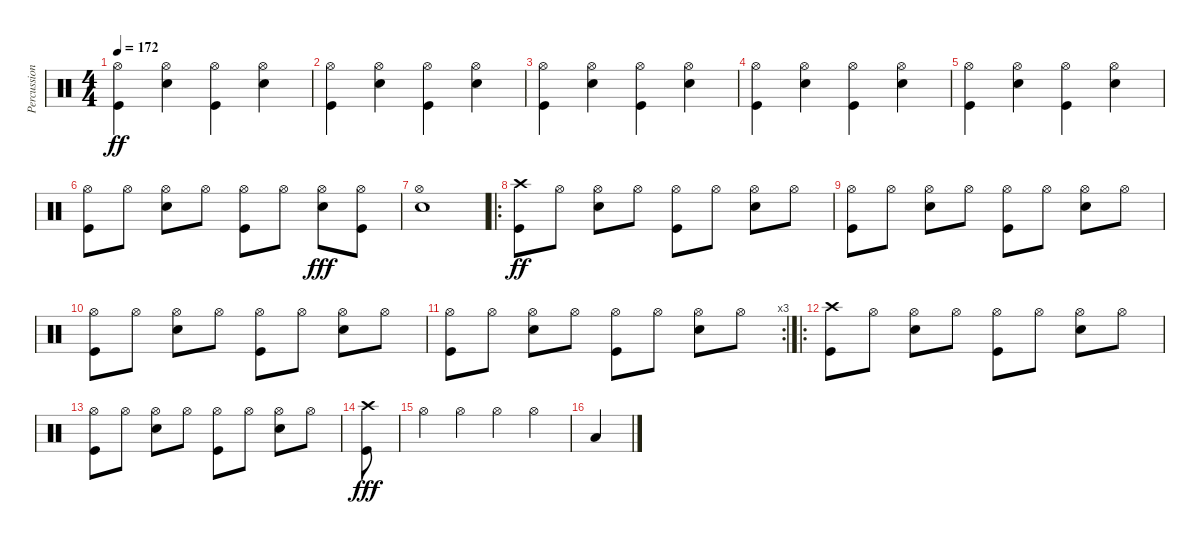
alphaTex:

\track ("Percussioni" "Percussion") {instrument percussion}
\staff {score}
\articulation defaults
\ts (4 4)
\tempo 172
\clef neutral
\ks c
("Hi-Hat (open)" "Kick (hit)").4{dy ff} ("Hi-Hat (open)" "Electric Snare (hit)").4 ("Hi-Hat (open)" "Kick (hit)").4 ("Hi-Hat (open)" "Electric Snare (hit)").4 |
("Hi-Hat (open)" "Kick (hit)").4 ("Hi-Hat (open)" "Electric Snare (hit)").4 ("Hi-Hat (open)" "Kick (hit)").4 ("Hi-Hat (open)" "Electric Snare (hit)").4 |
("Hi-Hat (open)" "Kick (hit)").4 ("Hi-Hat (open)" "Electric Snare (hit)").4 ("Hi-Hat (open)" "Kick (hit)").4 ("Hi-Hat (open)" "Electric Snare (hit)").4 |
("Hi-Hat (open)" "Kick (hit)").4 ("Hi-Hat (open)" "Electric Snare (hit)").4 ("Hi-Hat (open)" "Kick (hit)").4 ("Hi-Hat (open)" "Electric Snare (hit)").4 |
("Hi-Hat (open)" "Kick (hit)").4 ("Hi-Hat (open)" "Electric Snare (hit)").4 ("Hi-Hat (open)" "Kick (hit)").4 ("Hi-Hat (open)" "Electric Snare (hit)").4 |
("Hi-Hat (open)" "Kick (hit)").8 "Hi-Hat (open)".8 ("Hi-Hat (open)" "Electric Snare (hit)").8 "Hi-Hat (open)".8 ("Hi-Hat (open)" "Kick (hit)").8 "Hi-Hat (open)".8 ("Hi-Hat (open)" "Electric Snare (hit)").8{dy fff} ("Hi-Hat (open)" "Kick (hit)").8 |
("Hi-Hat (open)" "Electric Snare (hit)").1 |
\ro
("Crash high (hit)" "Kick (hit)").8{dy ff} "Hi-Hat (open)".8 ("Hi-Hat (open)" "Electric Snare (hit)").8 "Hi-Hat (open)".8 ("Hi-Hat (open)" "Kick (hit)").8 "Hi-Hat (open)".8 ("Hi-Hat (open)" "Electric Snare (hit)").8 "Hi-Hat (open)".8 |
("Hi-Hat (open)" "Kick (hit)").8 "Hi-Hat (open)".8 ("Hi-Hat (open)" "Electric Snare (hit)").8 "Hi-Hat (open)".8 ("Hi-Hat (open)" "Kick (hit)").8 "Hi-Hat (open)".8 ("Hi-Hat (open)" "Electric Snare (hit)").8 "Hi-Hat (open)".8 |
("Hi-Hat (open)" "Kick (hit)").8 "Hi-Hat (open)".8 ("Hi-Hat (open)" "Electric Snare (hit)").8 "Hi-Hat (open)".8 ("Hi-Hat (open)" "Kick (hit)").8 "Hi-Hat (open)".8 ("Hi-Hat (open)" "Electric Snare (hit)").8 "Hi-Hat (open)".8 |
\rc 3
("Hi-Hat (open)" "Kick (hit)").8 "Hi-Hat (open)".8 ("Hi-Hat (open)" "Electric Snare (hit)").8 "Hi-Hat (open)".8 ("Hi-Hat (open)" "Kick (hit)").8 "Hi-Hat (open)".8 ("Hi-Hat (open)" "Electric Snare (hit)").8 "Hi-Hat (open)".8 |
\ro
("Crash high (hit)" "Kick (hit)").8 "Hi-Hat (open)".8 ("Hi-Hat (open)" "Electric Snare (hit)").8 "Hi-Hat (open)".8 ("Hi-Hat (open)" "Kick (hit)").8 "Hi-Hat (open)".8 ("Hi-Hat (open)" "Electric Snare (hit)").8 "Hi-Hat (open)".8 |
("Hi-Hat (open)" "Kick (hit)").8 "Hi-Hat (open)".8 ("Hi-Hat (open)" "Electric Snare (hit)").8 "Hi-Hat (open)".8 ("Hi-Hat (open)" "Kick (hit)").8 "Hi-Hat (open)".8 ("Hi-Hat (open)" "Electric Snare (hit)").8 "Hi-Hat (open)".8 |
("Crash high (hit)" "Kick (hit)").8{dy fff} |
"Hi-Hat (open)".4 "Hi-Hat (open)".4 "Hi-Hat (open)".4 "Hi-Hat (open)".4 |
"Low Tom (hit)".4
